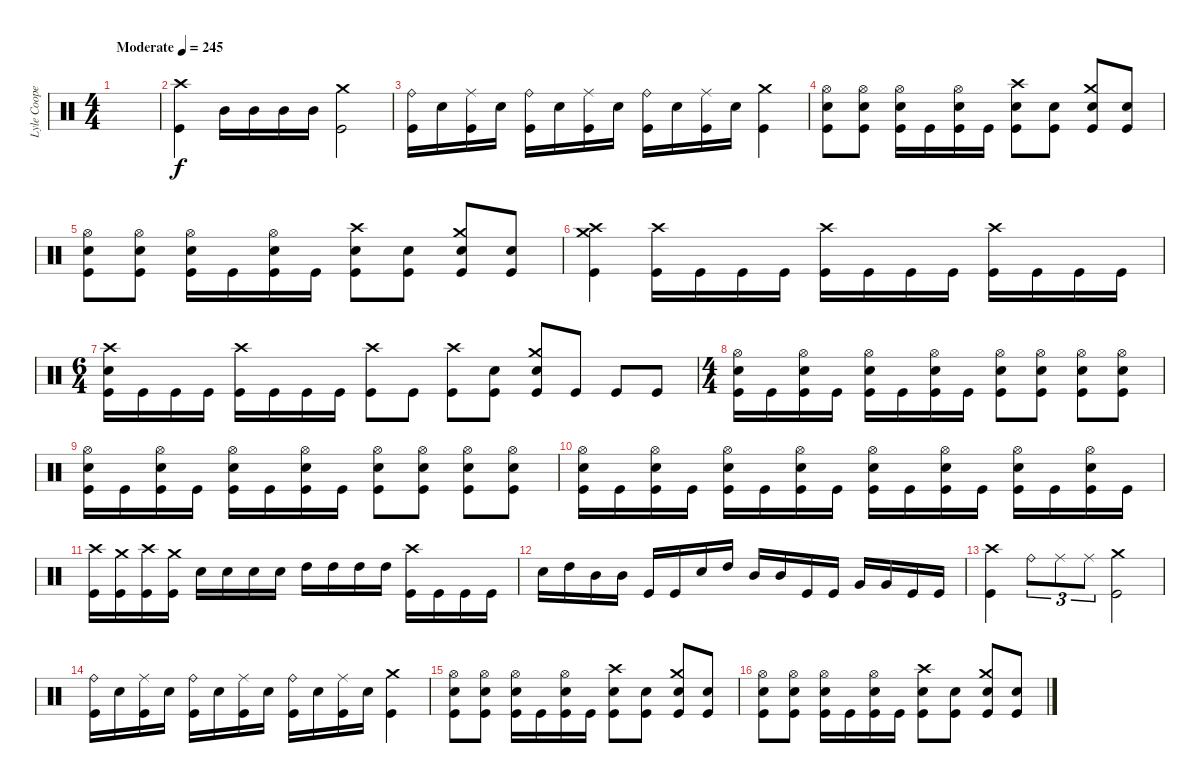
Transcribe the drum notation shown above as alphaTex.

\track ("Lyle Cooper" "Lyle Coope") {instrument percussion}
\staff {score}
\articulation defaults
\ts (4 4)
\tempo (245 "Moderate")
\clef neutral
\ks c
|
("Crash high (hit)" "Kick (hit)").4 "Mid Tom (hit)".16 "Mid Tom (hit)".16 "Mid Tom (hit)".16 "Mid Tom (hit)".16 ("Crash medium (hit)" "Kick (hit)").2 |
("Ride (bell)" "Kick (hit)").16 "Snare (hit) 2".16 ("Ride (middle)" "Kick (hit)").16 "Snare (hit) 2".16 ("Ride (bell)" "Kick (hit)").16 "Snare (hit) 2".16 ("Ride (middle)" "Kick (hit)").16 "Snare (hit) 2".16 ("Ride (bell)" "Kick (hit)").16 "Snare (hit) 2".16 ("Ride (middle)" "Kick (hit)").16 "Snare (hit) 2".16 ("Crash medium (hit)" "Kick (hit)").4 |
("Hi-Hat (open)" "Snare (hit) 2" "Kick (hit)").8 ("Hi-Hat (open)" "Snare (hit) 2" "Kick (hit)").8 ("Hi-Hat (open)" "Snare (hit) 2" "Kick (hit)").16 "Kick (hit)".16 ("Hi-Hat (open)" "Snare (hit) 2" "Kick (hit)").16 "Kick (hit)".16 ("Crash high (hit)" "Snare (hit) 2" "Kick (hit)").8 ("Snare (hit) 2" "Kick (hit)").8 ("Crash medium (hit)" "Snare (hit) 2" "Kick (hit)").8 ("Snare (hit) 2" "Kick (hit)").8 |
("Hi-Hat (open)" "Snare (hit) 2" "Kick (hit)").8 ("Hi-Hat (open)" "Snare (hit) 2" "Kick (hit)").8 ("Hi-Hat (open)" "Snare (hit) 2" "Kick (hit)").16 "Kick (hit)".16 ("Hi-Hat (open)" "Snare (hit) 2" "Kick (hit)").16 "Kick (hit)".16 ("Crash high (hit)" "Snare (hit) 2" "Kick (hit)").8 ("Snare (hit) 2" "Kick (hit)").8 ("Crash medium (hit)" "Snare (hit) 2" "Kick (hit)").8 ("Snare (hit) 2" "Kick (hit)").8 |
("Crash high (hit)" "Crash medium (hit)" "Kick (hit)").4 ("Crash high (hit)" "Kick (hit)").16 "Kick (hit)".16 "Kick (hit)".16 "Kick (hit)".16 ("Crash high (hit)" "Kick (hit)").16 "Kick (hit)".16 "Kick (hit)".16 "Kick (hit)".16 ("Crash high (hit)" "Kick (hit)").16 "Kick (hit)".16 "Kick (hit)".16 "Kick (hit)".16 |
\ts (6 4)
("Crash high (hit)" "Snare (hit) 2" "Kick (hit)").16 "Kick (hit)".16 "Kick (hit)".16 "Kick (hit)".16 ("Crash high (hit)" "Kick (hit)").16 "Kick (hit)".16 "Kick (hit)".16 "Kick (hit)".16 ("Crash high (hit)" "Kick (hit)").8 "Kick (hit)".8 ("Crash high (hit)" "Kick (hit)").8 ("Snare (hit) 2" "Kick (hit)").8 ("Crash medium (hit)" "Snare (hit) 2" "Kick (hit)").8 "Kick (hit)".8 "Kick (hit)".8 "Kick (hit)".8 |
\ts (4 4)
("Hi-Hat (open)" "Snare (hit) 2" "Kick (hit)").16 "Kick (hit)".16 ("Hi-Hat (open)" "Snare (hit) 2" "Kick (hit)").16 "Kick (hit)".16 ("Hi-Hat (open)" "Snare (hit) 2" "Kick (hit)").16 "Kick (hit)".16 ("Hi-Hat (open)" "Snare (hit) 2" "Kick (hit)").16 "Kick (hit)".16 ("Hi-Hat (open)" "Snare (hit) 2" "Kick (hit)").8 ("Hi-Hat (open)" "Snare (hit) 2" "Kick (hit)").8 ("Hi-Hat (open)" "Snare (hit) 2" "Kick (hit)").8 ("Hi-Hat (open)" "Snare (hit) 2" "Kick (hit)").8 |
("Hi-Hat (open)" "Snare (hit) 2" "Kick (hit)").16 "Kick (hit)".16 ("Hi-Hat (open)" "Snare (hit) 2" "Kick (hit)").16 "Kick (hit)".16 ("Hi-Hat (open)" "Snare (hit) 2" "Kick (hit)").16 "Kick (hit)".16 ("Hi-Hat (open)" "Snare (hit) 2" "Kick (hit)").16 "Kick (hit)".16 ("Hi-Hat (open)" "Snare (hit) 2" "Kick (hit)").8 ("Hi-Hat (open)" "Snare (hit) 2" "Kick (hit)").8 ("Hi-Hat (open)" "Snare (hit) 2" "Kick (hit)").8 ("Hi-Hat (open)" "Snare (hit) 2" "Kick (hit)").8 |
("Hi-Hat (open)" "Snare (hit) 2" "Kick (hit)").16 "Kick (hit)".16 ("Hi-Hat (open)" "Snare (hit) 2" "Kick (hit)").16 "Kick (hit)".16 ("Hi-Hat (open)" "Snare (hit) 2" "Kick (hit)").16 "Kick (hit)".16 ("Hi-Hat (open)" "Snare (hit) 2" "Kick (hit)").16 "Kick (hit)".16 ("Hi-Hat (open)" "Snare (hit) 2" "Kick (hit)").16 "Kick (hit)".16 ("Hi-Hat (open)" "Snare (hit) 2" "Kick (hit)").16 "Kick (hit)".16 ("Hi-Hat (open)" "Snare (hit) 2" "Kick (hit)").16 "Kick (hit)".16 ("Hi-Hat (open)" "Snare (hit) 2" "Kick (hit)").16 "Kick (hit)".16 |
("Crash high (hit)" "Kick (hit)").16 ("Crash medium (hit)" "Kick (hit)").16 ("Crash high (hit)" "Kick (hit)").16 ("Crash medium (hit)" "Kick (hit)").16 "Snare (hit) 2".16 "Snare (hit) 2".16 "Snare (hit) 2".16 "Snare (hit) 2".16 "High Tom (hit)".16 "High Tom (hit)".16 "High Tom (hit)".16 "High Tom (hit)".16 ("Crash high (hit)" "Kick (hit)").16 "Kick (hit)".16 "Kick (hit)".16 "Kick (hit)".16 |
"Snare (hit) 2".16 "High Tom (hit)".16 "Mid Tom (hit)".16 "Mid Tom (hit)".16 "Kick (hit)".16 "Kick (hit)".16 "Snare (hit) 2".16 "High Tom (hit)".16 "Mid Tom (hit)".16 "Mid Tom (hit)".16 "Kick (hit)".16 "Kick (hit)".16 "Very Low Tom (hit)".16 "Very Low Tom (hit)".16 "Kick (hit)".16 "Kick (hit)".16 |
("Crash high (hit)" "Kick (hit)").4 "Ride (bell)".8{tu (3 2)} "Ride (middle)".8{tu (3 2)} "Ride (middle)".8{tu (3 2)} ("Crash medium (hit)" "Kick (hit)").2 |
("Ride (bell)" "Kick (hit)").16 "Snare (hit) 2".16 ("Ride (middle)" "Kick (hit)").16 "Snare (hit) 2".16 ("Ride (bell)" "Kick (hit)").16 "Snare (hit) 2".16 ("Ride (middle)" "Kick (hit)").16 "Snare (hit) 2".16 ("Ride (bell)" "Kick (hit)").16 "Snare (hit) 2".16 ("Ride (middle)" "Kick (hit)").16 "Snare (hit) 2".16 ("Crash medium (hit)" "Kick (hit)").4 |
("Hi-Hat (open)" "Snare (hit) 2" "Kick (hit)").8 ("Hi-Hat (open)" "Snare (hit) 2" "Kick (hit)").8 ("Hi-Hat (open)" "Snare (hit) 2" "Kick (hit)").16 "Kick (hit)".16 ("Hi-Hat (open)" "Snare (hit) 2" "Kick (hit)").16 "Kick (hit)".16 ("Crash high (hit)" "Snare (hit) 2" "Kick (hit)").8 ("Snare (hit) 2" "Kick (hit)").8 ("Crash medium (hit)" "Snare (hit) 2" "Kick (hit)").8 ("Snare (hit) 2" "Kick (hit)").8 |
("Hi-Hat (open)" "Snare (hit) 2" "Kick (hit)").8 ("Hi-Hat (open)" "Snare (hit) 2" "Kick (hit)").8 ("Hi-Hat (open)" "Snare (hit) 2" "Kick (hit)").16 "Kick (hit)".16 ("Hi-Hat (open)" "Snare (hit) 2" "Kick (hit)").16 "Kick (hit)".16 ("Crash high (hit)" "Snare (hit) 2" "Kick (hit)").8 ("Snare (hit) 2" "Kick (hit)").8 ("Crash medium (hit)" "Snare (hit) 2" "Kick (hit)").8 ("Snare (hit) 2" "Kick (hit)").8
